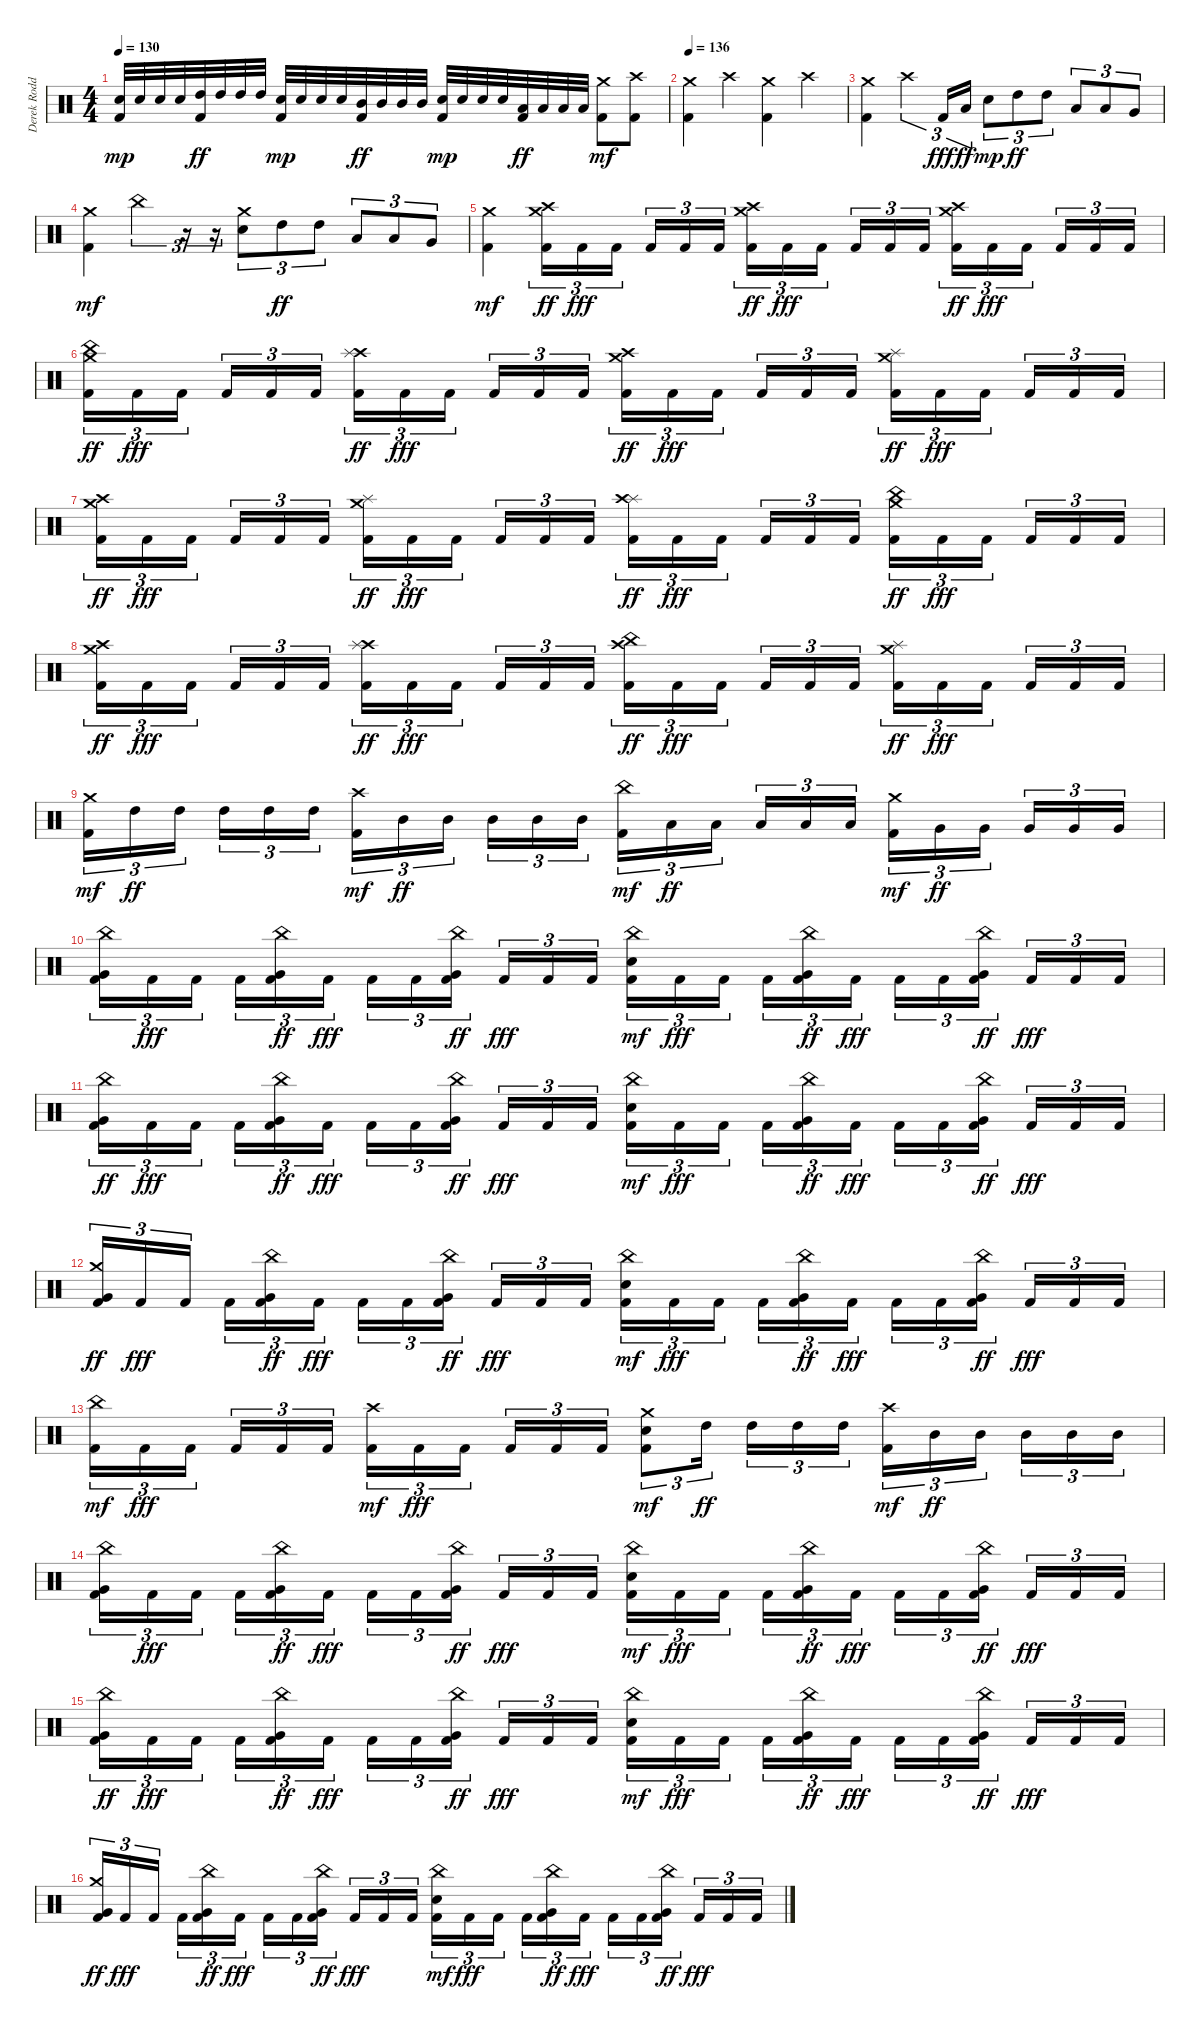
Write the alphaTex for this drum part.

\track ("Derek Roddy" "Derek Rodd") {instrument percussion}
\staff {score}
\articulation defaults
\ts (4 4)
\tempo 130
\clef neutral
\ks c
("Kick (hit) 2" "Electric Snare (hit)").32{dy mp} "Electric Snare (hit)".32 "Electric Snare (hit)".32 "Electric Snare (hit)".32 ("Kick (hit) 2" "High Tom (hit)").32{dy ff} "High Tom (hit)".32 "High Tom (hit)".32 "High Tom (hit)".32 ("Kick (hit) 2" "Electric Snare (hit)").32{dy mp} "Electric Snare (hit)".32 "Electric Snare (hit)".32 "Electric Snare (hit)".32 ("Kick (hit) 2" "Mid Tom (hit)").32{dy ff} "Mid Tom (hit)".32 "Mid Tom (hit)".32 "Mid Tom (hit)".32 ("Kick (hit) 2" "Electric Snare (hit)").32{dy mp} "Electric Snare (hit)".32 "Electric Snare (hit)".32 "Electric Snare (hit)".32 ("Kick (hit) 2" "Low Tom (hit)").32{dy ff} "Low Tom (hit)".32 "Low Tom (hit)".32 "Low Tom (hit)".32 ("Kick (hit) 2" "Crash medium (hit)").8{dy mf} ("Kick (hit) 2" "Crash high (hit)").8 |
\tempo 136
("Kick (hit) 2" "Crash medium (hit)").4 "Crash high (hit)".4 ("Kick (hit) 2" "Crash medium (hit)").4 "Crash high (hit)".4 |
("Kick (hit) 2" "Crash medium (hit)").4 "Crash high (hit)".4{tu (3 2)} "Kick (hit) 2".16{tu (3 2) dy fff} "Low Tom (hit)".16{tu (3 2) dy ff} "Electric Snare (hit)".8{tu (3 2) dy mp} "High Tom (hit)".8{tu (3 2) dy ff} "High Tom (hit)".8{tu (3 2)} "Low Tom (hit)".8{tu (3 2)} "Low Tom (hit)".8{tu (3 2)} "Very Low Tom (hit)".8{tu (3 2)} |
("Kick (hit) 2" "Crash medium (hit)").4{dy mf} "China (hit)".4{tu (3 2)} r.16{tu (3 2)} r.16{tu (3 2)} ("Electric Snare (hit)" "Crash medium (hit)").8{tu (3 2)} "High Tom (hit)".8{tu (3 2) dy ff} "High Tom (hit)".8{tu (3 2)} "Low Tom (hit)".8{tu (3 2)} "Low Tom (hit)".8{tu (3 2)} "Very Low Tom (hit)".8{tu (3 2)} |
("Kick (hit) 2" "Crash medium (hit)").4{dy mf} ("Kick (hit) 2" "Crash medium (hit)" "Crash high (hit)").16{tu (3 2) dy ff} "Kick (hit) 2".16{tu (3 2) dy fff} "Kick (hit) 2".16{tu (3 2) beam splitsecondary} "Kick (hit) 2".16{tu (3 2)} "Kick (hit) 2".16{tu (3 2)} "Kick (hit) 2".16{tu (3 2)} ("Kick (hit) 2" "Crash medium (hit)" "Crash high (hit)").16{tu (3 2) dy ff} "Kick (hit) 2".16{tu (3 2) dy fff} "Kick (hit) 2".16{tu (3 2) beam splitsecondary} "Kick (hit) 2".16{tu (3 2)} "Kick (hit) 2".16{tu (3 2)} "Kick (hit) 2".16{tu (3 2)} ("Kick (hit) 2" "Crash medium (hit)" "Crash high (hit)").16{tu (3 2) dy ff} "Kick (hit) 2".16{tu (3 2) dy fff} "Kick (hit) 2".16{tu (3 2) beam splitsecondary} "Kick (hit) 2".16{tu (3 2)} "Kick (hit) 2".16{tu (3 2)} "Kick (hit) 2".16{tu (3 2)} |
("Kick (hit) 2" "Crash medium (hit)" "China (hit)").16{tu (3 2) dy ff} "Kick (hit) 2".16{tu (3 2) dy fff} "Kick (hit) 2".16{tu (3 2) beam splitsecondary} "Kick (hit) 2".16{tu (3 2)} "Kick (hit) 2".16{tu (3 2)} "Kick (hit) 2".16{tu (3 2)} ("Kick (hit) 2" "Crash high (hit)" "Splash (hit)").16{tu (3 2) dy ff} "Kick (hit) 2".16{tu (3 2) dy fff} "Kick (hit) 2".16{tu (3 2) beam splitsecondary} "Kick (hit) 2".16{tu (3 2)} "Kick (hit) 2".16{tu (3 2)} "Kick (hit) 2".16{tu (3 2)} ("Kick (hit) 2" "Crash medium (hit)" "Crash high (hit)").16{tu (3 2) dy ff} "Kick (hit) 2".16{tu (3 2) dy fff} "Kick (hit) 2".16{tu (3 2) beam splitsecondary} "Kick (hit) 2".16{tu (3 2)} "Kick (hit) 2".16{tu (3 2)} "Kick (hit) 2".16{tu (3 2)} ("Kick (hit) 2" "Splash (hit)" "Crash medium (hit)").16{tu (3 2) dy ff} "Kick (hit) 2".16{tu (3 2) dy fff} "Kick (hit) 2".16{tu (3 2) beam splitsecondary} "Kick (hit) 2".16{tu (3 2)} "Kick (hit) 2".16{tu (3 2)} "Kick (hit) 2".16{tu (3 2)} |
("Kick (hit) 2" "Crash high (hit)" "Crash medium (hit)").16{tu (3 2) dy ff} "Kick (hit) 2".16{tu (3 2) dy fff} "Kick (hit) 2".16{tu (3 2) beam splitsecondary} "Kick (hit) 2".16{tu (3 2)} "Kick (hit) 2".16{tu (3 2)} "Kick (hit) 2".16{tu (3 2)} ("Kick (hit) 2" "Crash medium (hit)" "Splash (hit)").16{tu (3 2) dy ff} "Kick (hit) 2".16{tu (3 2) dy fff} "Kick (hit) 2".16{tu (3 2) beam splitsecondary} "Kick (hit) 2".16{tu (3 2)} "Kick (hit) 2".16{tu (3 2)} "Kick (hit) 2".16{tu (3 2)} ("Kick (hit) 2" "Splash (hit)" "Crash high (hit)").16{tu (3 2) dy ff} "Kick (hit) 2".16{tu (3 2) dy fff} "Kick (hit) 2".16{tu (3 2) beam splitsecondary} "Kick (hit) 2".16{tu (3 2)} "Kick (hit) 2".16{tu (3 2)} "Kick (hit) 2".16{tu (3 2)} ("Kick (hit) 2" "China (hit)" "Crash medium (hit)").16{tu (3 2) dy ff} "Kick (hit) 2".16{tu (3 2) dy fff} "Kick (hit) 2".16{tu (3 2) beam splitsecondary} "Kick (hit) 2".16{tu (3 2)} "Kick (hit) 2".16{tu (3 2)} "Kick (hit) 2".16{tu (3 2)} |
("Kick (hit) 2" "Crash medium (hit)" "Crash high (hit)").16{tu (3 2) dy ff} "Kick (hit) 2".16{tu (3 2) dy fff} "Kick (hit) 2".16{tu (3 2) beam splitsecondary} "Kick (hit) 2".16{tu (3 2)} "Kick (hit) 2".16{tu (3 2)} "Kick (hit) 2".16{tu (3 2)} ("Kick (hit) 2" "Crash high (hit)" "Splash (hit)").16{tu (3 2) dy ff} "Kick (hit) 2".16{tu (3 2) dy fff} "Kick (hit) 2".16{tu (3 2) beam splitsecondary} "Kick (hit) 2".16{tu (3 2)} "Kick (hit) 2".16{tu (3 2)} "Kick (hit) 2".16{tu (3 2)} ("Kick (hit) 2" "China (hit)" "Crash high (hit)").16{tu (3 2) dy ff} "Kick (hit) 2".16{tu (3 2) dy fff} "Kick (hit) 2".16{tu (3 2) beam splitsecondary} "Kick (hit) 2".16{tu (3 2)} "Kick (hit) 2".16{tu (3 2)} "Kick (hit) 2".16{tu (3 2)} ("Kick (hit) 2" "Splash (hit)" "Crash medium (hit)").16{tu (3 2) dy ff} "Kick (hit) 2".16{tu (3 2) dy fff} "Kick (hit) 2".16{tu (3 2) beam splitsecondary} "Kick (hit) 2".16{tu (3 2)} "Kick (hit) 2".16{tu (3 2)} "Kick (hit) 2".16{tu (3 2)} |
("Kick (hit) 2" "Crash medium (hit)").16{tu (3 2) dy mf} "High Tom (hit)".16{tu (3 2) dy ff} "High Tom (hit)".16{tu (3 2) beam splitsecondary} "High Tom (hit)".16{tu (3 2)} "High Tom (hit)".16{tu (3 2)} "High Tom (hit)".16{tu (3 2)} ("Kick (hit) 2" "Crash high (hit)").16{tu (3 2) dy mf} "Mid Tom (hit)".16{tu (3 2) dy ff} "Mid Tom (hit)".16{tu (3 2) beam splitsecondary} "Mid Tom (hit)".16{tu (3 2)} "Mid Tom (hit)".16{tu (3 2)} "Mid Tom (hit)".16{tu (3 2)} ("Kick (hit) 2" "China (hit)").16{tu (3 2) dy mf} "Low Tom (hit)".16{tu (3 2) dy ff} "Low Tom (hit)".16{tu (3 2) beam splitsecondary} "Low Tom (hit)".16{tu (3 2)} "Low Tom (hit)".16{tu (3 2)} "Low Tom (hit)".16{tu (3 2)} ("Kick (hit) 2" "Crash medium (hit)").16{tu (3 2) dy mf} "Very Low Tom (hit)".16{tu (3 2) dy ff} "Very Low Tom (hit)".16{tu (3 2) beam splitsecondary} "Very Low Tom (hit)".16{tu (3 2)} "Very Low Tom (hit)".16{tu (3 2)} "Very Low Tom (hit)".16{tu (3 2)} |
("Kick (hit) 2" "China (hit)" "Very Low Tom (hit)").16{tu (3 2)} "Kick (hit) 2".16{tu (3 2) dy fff} "Kick (hit) 2".16{tu (3 2) beam splitsecondary} "Kick (hit) 2".16{tu (3 2)} ("Kick (hit) 2" "China (hit)" "Very Low Tom (hit)").16{tu (3 2) dy ff} "Kick (hit) 2".16{tu (3 2) dy fff} "Kick (hit) 2".16{tu (3 2)} "Kick (hit) 2".16{tu (3 2)} ("Kick (hit) 2" "China (hit)" "Very Low Tom (hit)").16{tu (3 2) dy ff beam splitsecondary} "Kick (hit) 2".16{tu (3 2) dy fff} "Kick (hit) 2".16{tu (3 2)} "Kick (hit) 2".16{tu (3 2)} ("Kick (hit) 2" "Electric Snare (hit)" "China (hit)").16{tu (3 2) dy mf} "Kick (hit) 2".16{tu (3 2) dy fff} "Kick (hit) 2".16{tu (3 2) beam splitsecondary} "Kick (hit) 2".16{tu (3 2)} ("Kick (hit) 2" "China (hit)" "Very Low Tom (hit)").16{tu (3 2) dy ff} "Kick (hit) 2".16{tu (3 2) dy fff} "Kick (hit) 2".16{tu (3 2)} "Kick (hit) 2".16{tu (3 2)} ("Kick (hit) 2" "China (hit)" "Very Low Tom (hit)").16{tu (3 2) dy ff beam splitsecondary} "Kick (hit) 2".16{tu (3 2) dy fff} "Kick (hit) 2".16{tu (3 2)} "Kick (hit) 2".16{tu (3 2)} |
("Kick (hit) 2" "China (hit)" "Very Low Tom (hit)").16{tu (3 2) dy ff} "Kick (hit) 2".16{tu (3 2) dy fff} "Kick (hit) 2".16{tu (3 2) beam splitsecondary} "Kick (hit) 2".16{tu (3 2)} ("Kick (hit) 2" "China (hit)" "Very Low Tom (hit)").16{tu (3 2) dy ff} "Kick (hit) 2".16{tu (3 2) dy fff} "Kick (hit) 2".16{tu (3 2)} "Kick (hit) 2".16{tu (3 2)} ("Kick (hit) 2" "China (hit)" "Very Low Tom (hit)").16{tu (3 2) dy ff beam splitsecondary} "Kick (hit) 2".16{tu (3 2) dy fff} "Kick (hit) 2".16{tu (3 2)} "Kick (hit) 2".16{tu (3 2)} ("Kick (hit) 2" "Electric Snare (hit)" "China (hit)").16{tu (3 2) dy mf} "Kick (hit) 2".16{tu (3 2) dy fff} "Kick (hit) 2".16{tu (3 2) beam splitsecondary} "Kick (hit) 2".16{tu (3 2)} ("Kick (hit) 2" "China (hit)" "Very Low Tom (hit)").16{tu (3 2) dy ff} "Kick (hit) 2".16{tu (3 2) dy fff} "Kick (hit) 2".16{tu (3 2)} "Kick (hit) 2".16{tu (3 2)} ("Kick (hit) 2" "China (hit)" "Very Low Tom (hit)").16{tu (3 2) dy ff beam splitsecondary} "Kick (hit) 2".16{tu (3 2) dy fff} "Kick (hit) 2".16{tu (3 2)} "Kick (hit) 2".16{tu (3 2)} |
("Kick (hit) 2" "Crash medium (hit)" "Very Low Tom (hit)").16{tu (3 2) dy ff} "Kick (hit) 2".16{tu (3 2) dy fff} "Kick (hit) 2".16{tu (3 2) beam splitsecondary} "Kick (hit) 2".16{tu (3 2)} ("Kick (hit) 2" "China (hit)" "Very Low Tom (hit)").16{tu (3 2) dy ff} "Kick (hit) 2".16{tu (3 2) dy fff} "Kick (hit) 2".16{tu (3 2)} "Kick (hit) 2".16{tu (3 2)} ("Kick (hit) 2" "China (hit)" "Very Low Tom (hit)").16{tu (3 2) dy ff beam splitsecondary} "Kick (hit) 2".16{tu (3 2) dy fff} "Kick (hit) 2".16{tu (3 2)} "Kick (hit) 2".16{tu (3 2)} ("Kick (hit) 2" "Electric Snare (hit)" "China (hit)").16{tu (3 2) dy mf} "Kick (hit) 2".16{tu (3 2) dy fff} "Kick (hit) 2".16{tu (3 2) beam splitsecondary} "Kick (hit) 2".16{tu (3 2)} ("Kick (hit) 2" "China (hit)" "Very Low Tom (hit)").16{tu (3 2) dy ff} "Kick (hit) 2".16{tu (3 2) dy fff} "Kick (hit) 2".16{tu (3 2)} "Kick (hit) 2".16{tu (3 2)} ("Kick (hit) 2" "China (hit)" "Very Low Tom (hit)").16{tu (3 2) dy ff beam splitsecondary} "Kick (hit) 2".16{tu (3 2) dy fff} "Kick (hit) 2".16{tu (3 2)} "Kick (hit) 2".16{tu (3 2)} |
("Kick (hit) 2" "China (hit)").16{tu (3 2) dy mf} "Kick (hit) 2".16{tu (3 2) dy fff} "Kick (hit) 2".16{tu (3 2) beam splitsecondary} "Kick (hit) 2".16{tu (3 2)} "Kick (hit) 2".16{tu (3 2)} "Kick (hit) 2".16{tu (3 2)} ("Kick (hit) 2" "Crash high (hit)").16{tu (3 2) dy mf} "Kick (hit) 2".16{tu (3 2) dy fff} "Kick (hit) 2".16{tu (3 2) beam splitsecondary} "Kick (hit) 2".16{tu (3 2)} "Kick (hit) 2".16{tu (3 2)} "Kick (hit) 2".16{tu (3 2)} ("Kick (hit) 2" "Electric Snare (hit)" "Crash medium (hit)").8{tu (3 2) dy mf} "High Tom (hit)".16{tu (3 2) dy ff beam splitsecondary} "High Tom (hit)".16{tu (3 2)} "High Tom (hit)".16{tu (3 2)} "High Tom (hit)".16{tu (3 2)} ("Kick (hit) 2" "Crash high (hit)").16{tu (3 2) dy mf} "Mid Tom (hit)".16{tu (3 2) dy ff} "Mid Tom (hit)".16{tu (3 2) beam splitsecondary} "Mid Tom (hit)".16{tu (3 2)} "Mid Tom (hit)".16{tu (3 2)} "Mid Tom (hit)".16{tu (3 2)} |
("Kick (hit) 2" "China (hit)" "Very Low Tom (hit)").16{tu (3 2)} "Kick (hit) 2".16{tu (3 2) dy fff} "Kick (hit) 2".16{tu (3 2) beam splitsecondary} "Kick (hit) 2".16{tu (3 2)} ("Kick (hit) 2" "China (hit)" "Very Low Tom (hit)").16{tu (3 2) dy ff} "Kick (hit) 2".16{tu (3 2) dy fff} "Kick (hit) 2".16{tu (3 2)} "Kick (hit) 2".16{tu (3 2)} ("Kick (hit) 2" "China (hit)" "Very Low Tom (hit)").16{tu (3 2) dy ff beam splitsecondary} "Kick (hit) 2".16{tu (3 2) dy fff} "Kick (hit) 2".16{tu (3 2)} "Kick (hit) 2".16{tu (3 2)} ("Kick (hit) 2" "Electric Snare (hit)" "China (hit)").16{tu (3 2) dy mf} "Kick (hit) 2".16{tu (3 2) dy fff} "Kick (hit) 2".16{tu (3 2) beam splitsecondary} "Kick (hit) 2".16{tu (3 2)} ("Kick (hit) 2" "China (hit)" "Very Low Tom (hit)").16{tu (3 2) dy ff} "Kick (hit) 2".16{tu (3 2) dy fff} "Kick (hit) 2".16{tu (3 2)} "Kick (hit) 2".16{tu (3 2)} ("Kick (hit) 2" "China (hit)" "Very Low Tom (hit)").16{tu (3 2) dy ff beam splitsecondary} "Kick (hit) 2".16{tu (3 2) dy fff} "Kick (hit) 2".16{tu (3 2)} "Kick (hit) 2".16{tu (3 2)} |
("Kick (hit) 2" "China (hit)" "Very Low Tom (hit)").16{tu (3 2) dy ff} "Kick (hit) 2".16{tu (3 2) dy fff} "Kick (hit) 2".16{tu (3 2) beam splitsecondary} "Kick (hit) 2".16{tu (3 2)} ("Kick (hit) 2" "China (hit)" "Very Low Tom (hit)").16{tu (3 2) dy ff} "Kick (hit) 2".16{tu (3 2) dy fff} "Kick (hit) 2".16{tu (3 2)} "Kick (hit) 2".16{tu (3 2)} ("Kick (hit) 2" "China (hit)" "Very Low Tom (hit)").16{tu (3 2) dy ff beam splitsecondary} "Kick (hit) 2".16{tu (3 2) dy fff} "Kick (hit) 2".16{tu (3 2)} "Kick (hit) 2".16{tu (3 2)} ("Kick (hit) 2" "Electric Snare (hit)" "China (hit)").16{tu (3 2) dy mf} "Kick (hit) 2".16{tu (3 2) dy fff} "Kick (hit) 2".16{tu (3 2) beam splitsecondary} "Kick (hit) 2".16{tu (3 2)} ("Kick (hit) 2" "China (hit)" "Very Low Tom (hit)").16{tu (3 2) dy ff} "Kick (hit) 2".16{tu (3 2) dy fff} "Kick (hit) 2".16{tu (3 2)} "Kick (hit) 2".16{tu (3 2)} ("Kick (hit) 2" "China (hit)" "Very Low Tom (hit)").16{tu (3 2) dy ff beam splitsecondary} "Kick (hit) 2".16{tu (3 2) dy fff} "Kick (hit) 2".16{tu (3 2)} "Kick (hit) 2".16{tu (3 2)} |
("Kick (hit) 2" "Crash medium (hit)" "Very Low Tom (hit)").16{tu (3 2) dy ff} "Kick (hit) 2".16{tu (3 2) dy fff} "Kick (hit) 2".16{tu (3 2) beam splitsecondary} "Kick (hit) 2".16{tu (3 2)} ("Kick (hit) 2" "China (hit)" "Very Low Tom (hit)").16{tu (3 2) dy ff} "Kick (hit) 2".16{tu (3 2) dy fff} "Kick (hit) 2".16{tu (3 2)} "Kick (hit) 2".16{tu (3 2)} ("Kick (hit) 2" "China (hit)" "Very Low Tom (hit)").16{tu (3 2) dy ff beam splitsecondary} "Kick (hit) 2".16{tu (3 2) dy fff} "Kick (hit) 2".16{tu (3 2)} "Kick (hit) 2".16{tu (3 2)} ("Kick (hit) 2" "Electric Snare (hit)" "China (hit)").16{tu (3 2) dy mf} "Kick (hit) 2".16{tu (3 2) dy fff} "Kick (hit) 2".16{tu (3 2) beam splitsecondary} "Kick (hit) 2".16{tu (3 2)} ("Kick (hit) 2" "China (hit)" "Very Low Tom (hit)").16{tu (3 2) dy ff} "Kick (hit) 2".16{tu (3 2) dy fff} "Kick (hit) 2".16{tu (3 2)} "Kick (hit) 2".16{tu (3 2)} ("Kick (hit) 2" "China (hit)" "Very Low Tom (hit)").16{tu (3 2) dy ff beam splitsecondary} "Kick (hit) 2".16{tu (3 2) dy fff} "Kick (hit) 2".16{tu (3 2)} "Kick (hit) 2".16{tu (3 2)}
